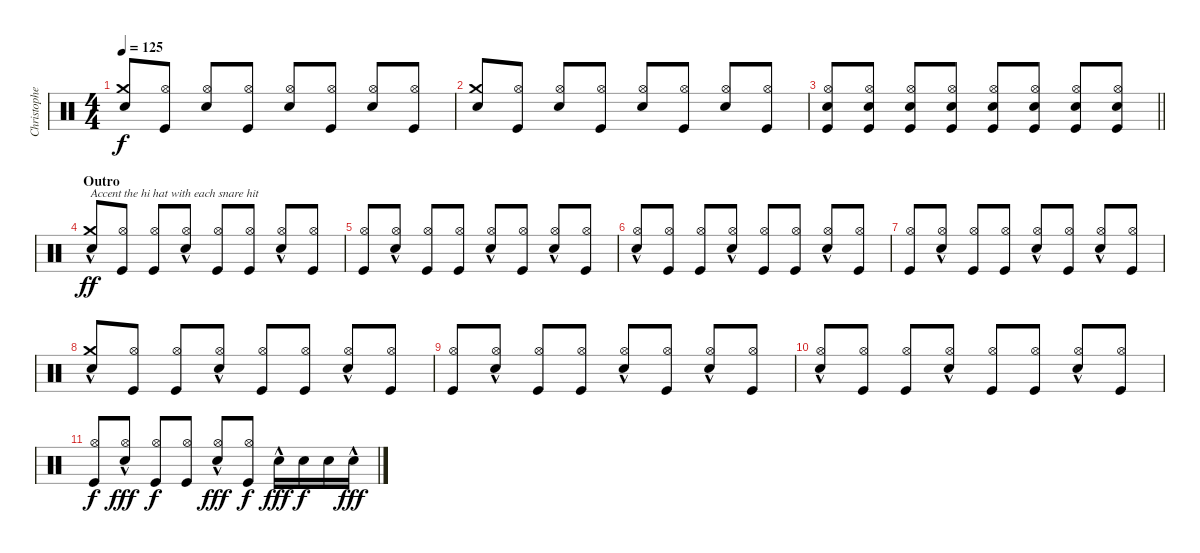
\track ("Christopher - Drums" "Christophe") {instrument percussion}
\staff {score}
\articulation defaults
\ts (4 4)
\tempo 125
\clef neutral
\ks c
("Crash medium (hit)" "Electric Snare (hit)").8{dy f beam Up} ("Hi-Hat (open)" "Kick (hit)").8{beam Up} ("Hi-Hat (open)" "Electric Snare (hit)").8{beam Up} ("Hi-Hat (open)" "Kick (hit)").8{beam Up} ("Hi-Hat (open)" "Electric Snare (hit)").8{beam Up} ("Hi-Hat (open)" "Kick (hit)").8{beam Up} ("Hi-Hat (open)" "Electric Snare (hit)").8{beam Up} ("Hi-Hat (open)" "Kick (hit)").8{beam Up} |
("Crash medium (hit)" "Electric Snare (hit)").8{beam Up} ("Hi-Hat (open)" "Kick (hit)").8{beam Up} ("Hi-Hat (open)" "Electric Snare (hit)").8{beam Up} ("Hi-Hat (open)" "Kick (hit)").8{beam Up} ("Hi-Hat (open)" "Electric Snare (hit)").8{beam Up} ("Hi-Hat (open)" "Kick (hit)").8{beam Up} ("Hi-Hat (open)" "Electric Snare (hit)").8{beam Up} ("Hi-Hat (open)" "Kick (hit)").8{beam Up} |
\barLineRight lightlight
("Hi-Hat (open)" "Electric Snare (hit)" "Kick (hit)").8{beam Up} ("Hi-Hat (open)" "Electric Snare (hit)" "Kick (hit)").8{beam Up} ("Hi-Hat (open)" "Electric Snare (hit)" "Kick (hit)").8{beam Up} ("Hi-Hat (open)" "Electric Snare (hit)" "Kick (hit)").8{beam Up} ("Hi-Hat (open)" "Electric Snare (hit)" "Kick (hit)").8{beam Up} ("Hi-Hat (open)" "Electric Snare (hit)" "Kick (hit)").8{beam Up} ("Hi-Hat (open)" "Electric Snare (hit)" "Kick (hit)").8{beam Up} ("Hi-Hat (open)" "Electric Snare (hit)" "Kick (hit)").8{beam Up} |
\section ("" "Outro")
("Crash medium (hit)"{hac} "Electric Snare (hit)").8{txt "Accent the hi hat with each snare hit" dy ff volume 16 beam Up} ("Hi-Hat (open)" "Kick (hit)").8{beam Up} ("Hi-Hat (open)" "Kick (hit)").8{beam Up} ("Hi-Hat (open)"{hac} "Electric Snare (hit)").8{beam Up} ("Hi-Hat (open)" "Kick (hit)").8{beam Up} ("Hi-Hat (open)" "Kick (hit)").8{beam Up} ("Hi-Hat (open)"{hac} "Electric Snare (hit)").8{beam Up} ("Hi-Hat (open)" "Kick (hit)").8{beam Up} |
("Hi-Hat (open)" "Kick (hit)").8{beam Up} ("Hi-Hat (open)"{hac} "Electric Snare (hit)").8{beam Up} ("Hi-Hat (open)" "Kick (hit)").8{beam Up} ("Hi-Hat (open)" "Kick (hit)").8{beam Up} ("Hi-Hat (open)"{hac} "Electric Snare (hit)").8{beam Up} ("Hi-Hat (open)" "Kick (hit)").8{beam Up} ("Hi-Hat (open)"{hac} "Electric Snare (hit)").8{beam Up} ("Hi-Hat (open)" "Kick (hit)").8{beam Up} |
("Hi-Hat (open)"{hac} "Electric Snare (hit)").8{beam Up} ("Hi-Hat (open)" "Kick (hit)").8{beam Up} ("Hi-Hat (open)" "Kick (hit)").8{beam Up} ("Hi-Hat (open)"{hac} "Electric Snare (hit)").8{beam Up} ("Hi-Hat (open)" "Kick (hit)").8{beam Up} ("Hi-Hat (open)" "Kick (hit)").8{beam Up} ("Hi-Hat (open)"{hac} "Electric Snare (hit)").8{beam Up} ("Hi-Hat (open)" "Kick (hit)").8{beam Up} |
("Hi-Hat (open)" "Kick (hit)").8{beam Up} ("Hi-Hat (open)"{hac} "Electric Snare (hit)").8{beam Up} ("Hi-Hat (open)" "Kick (hit)").8{beam Up} ("Hi-Hat (open)" "Kick (hit)").8{beam Up} ("Hi-Hat (open)"{hac} "Electric Snare (hit)").8{beam Up} ("Hi-Hat (open)" "Kick (hit)").8{beam Up} ("Hi-Hat (open)"{hac} "Electric Snare (hit)").8{beam Up} ("Hi-Hat (open)" "Kick (hit)").8{beam Up} |
("Crash medium (hit)"{hac} "Electric Snare (hit)").8{beam Up} ("Hi-Hat (open)" "Kick (hit)").8{beam Up} ("Hi-Hat (open)" "Kick (hit)").8{beam Up} ("Hi-Hat (open)"{hac} "Electric Snare (hit)").8{beam Up} ("Hi-Hat (open)" "Kick (hit)").8{beam Up} ("Hi-Hat (open)" "Kick (hit)").8{beam Up} ("Hi-Hat (open)"{hac} "Electric Snare (hit)").8{beam Up} ("Hi-Hat (open)" "Kick (hit)").8{beam Up} |
("Hi-Hat (open)" "Kick (hit)").8{beam Up} ("Hi-Hat (open)"{hac} "Electric Snare (hit)").8{beam Up} ("Hi-Hat (open)" "Kick (hit)").8{beam Up} ("Hi-Hat (open)" "Kick (hit)").8{beam Up} ("Hi-Hat (open)"{hac} "Electric Snare (hit)").8{beam Up} ("Hi-Hat (open)" "Kick (hit)").8{beam Up} ("Hi-Hat (open)"{hac} "Electric Snare (hit)").8{beam Up} ("Hi-Hat (open)" "Kick (hit)").8{beam Up} |
("Hi-Hat (open)"{hac} "Electric Snare (hit)").8{beam Up} ("Hi-Hat (open)" "Kick (hit)").8{beam Up} ("Hi-Hat (open)" "Kick (hit)").8{beam Up} ("Hi-Hat (open)"{hac} "Electric Snare (hit)").8{beam Up} ("Hi-Hat (open)" "Kick (hit)").8{beam Up} ("Hi-Hat (open)" "Kick (hit)").8{beam Up} ("Hi-Hat (open)"{hac} "Electric Snare (hit)").8{beam Up} ("Hi-Hat (open)" "Kick (hit)").8{beam Up} |
("Hi-Hat (open)" "Kick (hit)").8{dy f beam Up} ("Hi-Hat (open)"{hac} "Electric Snare (hit)").8{dy fff beam Up} ("Hi-Hat (open)" "Kick (hit)").8{dy f beam Up} ("Hi-Hat (open)" "Kick (hit)").8{beam Up} ("Hi-Hat (open)"{hac} "Electric Snare (hit)").8{dy fff beam Up} ("Hi-Hat (open)" "Kick (hit)").8{dy f beam Up} "Electric Snare (hit)"{hac}.16{dy fff} "Electric Snare (hit)".16{dy f} "Electric Snare (hit)".16 "Electric Snare (hit)"{hac}.16{dy fff}
